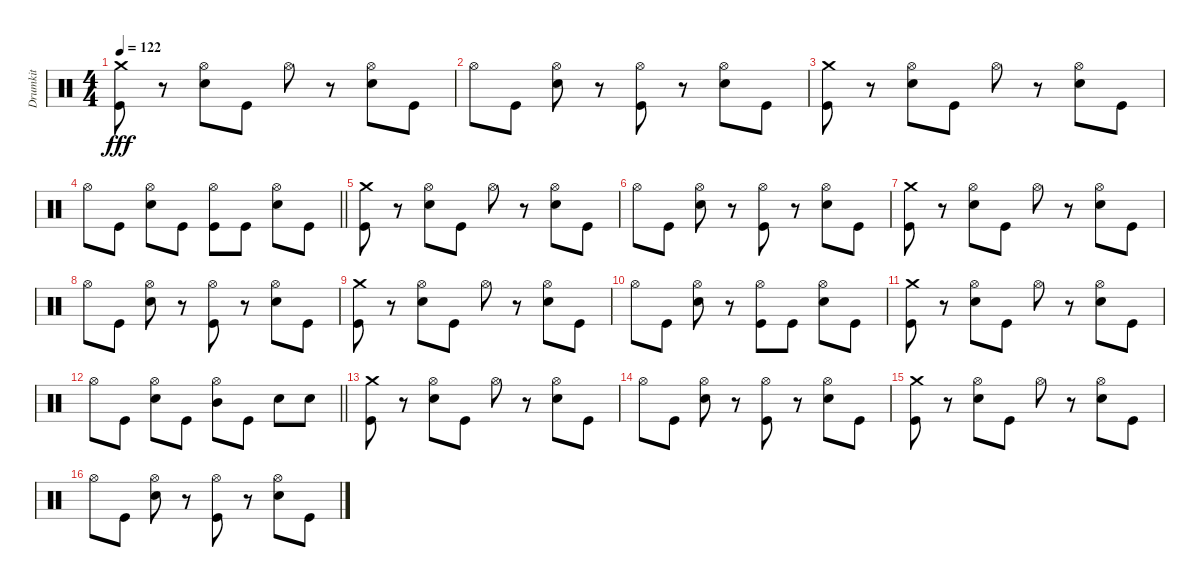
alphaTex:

\track ("Drumkit" "Drumkit") {instrument percussion}
\staff {score}
\articulation defaults
\ts (4 4)
\tempo 122
\clef neutral
\ks c
("Kick (hit)" "Crash medium (hit)").8{dy fff} r.8 ("Hi-Hat (open)" "Snare (hit) 2").8 "Kick (hit)".8 "Hi-Hat (open)".8 r.8 ("Hi-Hat (open)" "Snare (hit) 2").8 "Kick (hit)".8 |
"Hi-Hat (open)".8 "Kick (hit)".8 ("Hi-Hat (open)" "Snare (hit) 2").8 r.8 ("Hi-Hat (open)" "Kick (hit)").8 r.8 ("Hi-Hat (open)" "Snare (hit) 2").8 "Kick (hit)".8 |
("Kick (hit)" "Crash medium (hit)").8 r.8 ("Hi-Hat (open)" "Snare (hit) 2").8 "Kick (hit)".8 "Hi-Hat (open)".8 r.8 ("Hi-Hat (open)" "Snare (hit) 2").8 "Kick (hit)".8 |
\barLineRight lightlight "Hi-Hat (open)".8 "Kick (hit)".8
("Hi-Hat (open)" "Snare (hit) 2").8 "Kick (hit)".8 ("Hi-Hat (open)" "Kick (hit)").8 "Kick (hit)".8 ("Hi-Hat (open)" "Snare (hit) 2").8 "Kick (hit)".8 |
("Kick (hit)" "Crash medium (hit)").8 r.8 ("Hi-Hat (open)" "Snare (hit) 2").8 "Kick (hit)".8 "Hi-Hat (open)".8 r.8 ("Hi-Hat (open)" "Snare (hit) 2").8 "Kick (hit)".8 |
"Hi-Hat (open)".8 "Kick (hit)".8 ("Hi-Hat (open)" "Snare (hit) 2").8 r.8 ("Hi-Hat (open)" "Kick (hit)").8 r.8 ("Hi-Hat (open)" "Snare (hit) 2").8 "Kick (hit)".8 |
("Kick (hit)" "Crash medium (hit)").8 r.8 ("Hi-Hat (open)" "Snare (hit) 2").8 "Kick (hit)".8 "Hi-Hat (open)".8 r.8 ("Hi-Hat (open)" "Snare (hit) 2").8 "Kick (hit)".8 |
"Hi-Hat (open)".8 "Kick (hit)".8 ("Hi-Hat (open)" "Snare (hit) 2").8 r.8 ("Hi-Hat (open)" "Kick (hit)").8 r.8 ("Hi-Hat (open)" "Snare (hit) 2").8 "Kick (hit)".8 |
("Kick (hit)" "Crash medium (hit)").8 r.8 ("Hi-Hat (open)" "Snare (hit) 2").8 "Kick (hit)".8 "Hi-Hat (open)".8 r.8 ("Hi-Hat (open)" "Snare (hit) 2").8 "Kick (hit)".8 |
"Hi-Hat (open)".8 "Kick (hit)".8 ("Hi-Hat (open)" "Snare (hit) 2").8 r.8 ("Hi-Hat (open)" "Kick (hit)").8 "Kick (hit)".8 ("Hi-Hat (open)" "Snare (hit) 2").8 "Kick (hit)".8 |
("Kick (hit)" "Crash medium (hit)").8 r.8 ("Hi-Hat (open)" "Snare (hit) 2").8 "Kick (hit)".8 "Hi-Hat (open)".8 r.8 ("Hi-Hat (open)" "Snare (hit) 2").8 "Kick (hit)".8 |
\barLineRight lightlight "Hi-Hat (open)".8 "Kick (hit)".8
("Hi-Hat (open)" "Snare (hit) 2").8 "Kick (hit)".8 ("Hi-Hat (open)" "Mid Tom (hit)").8 "Kick (hit)".8 "Snare (hit) 2".8 "Snare (hit) 2".8 |
("Kick (hit)" "Crash medium (hit)").8 r.8 ("Hi-Hat (open)" "Snare (hit) 2").8 "Kick (hit)".8 "Hi-Hat (open)".8 r.8 ("Hi-Hat (open)" "Snare (hit) 2").8 "Kick (hit)".8 |
"Hi-Hat (open)".8 "Kick (hit)".8 ("Hi-Hat (open)" "Snare (hit) 2").8 r.8 ("Hi-Hat (open)" "Kick (hit)").8 r.8 ("Hi-Hat (open)" "Snare (hit) 2").8 "Kick (hit)".8 |
("Kick (hit)" "Crash medium (hit)").8 r.8 ("Hi-Hat (open)" "Snare (hit) 2").8 "Kick (hit)".8 "Hi-Hat (open)".8 r.8 ("Hi-Hat (open)" "Snare (hit) 2").8 "Kick (hit)".8 |
"Hi-Hat (open)".8 "Kick (hit)".8 ("Hi-Hat (open)" "Snare (hit) 2").8 r.8 ("Hi-Hat (open)" "Kick (hit)").8 r.8 ("Hi-Hat (open)" "Snare (hit) 2").8 "Kick (hit)".8
